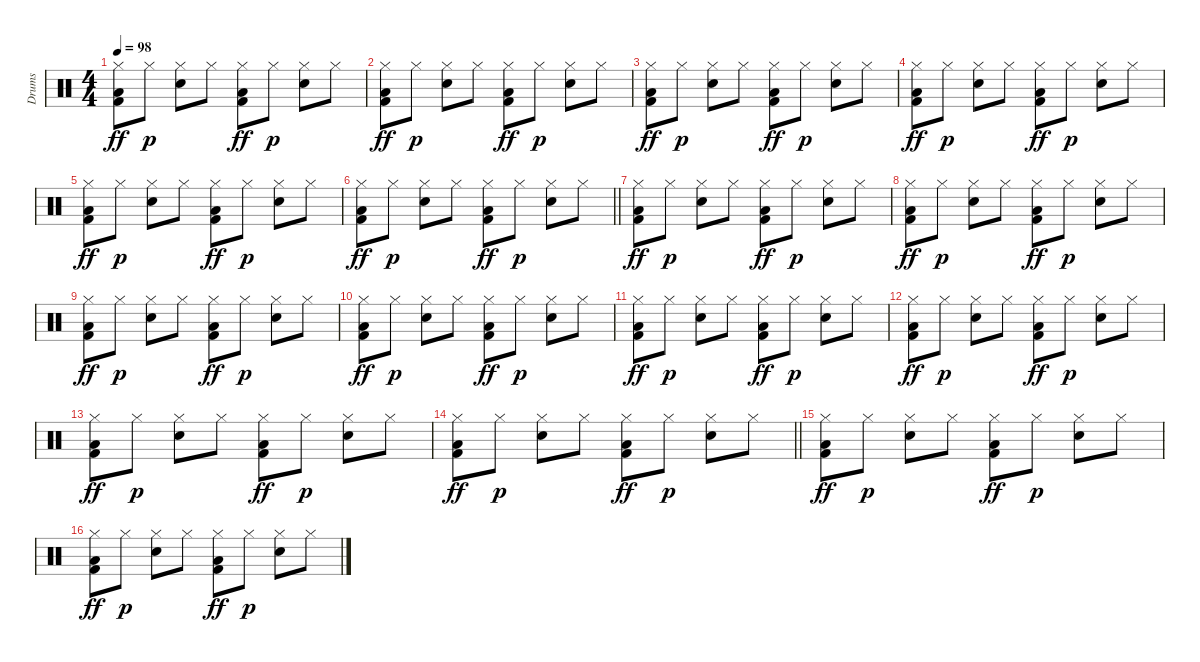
\track ("Drums" "Drums") {instrument percussion}
\staff {score}
\articulation defaults
\ts (4 4)
\tempo 98
\clef neutral
\ks c
("Hi-Hat (closed)" "Low Floor Tom (hit)" "Kick (hit) 2").8{dy ff} "Hi-Hat (closed)".8{dy p} ("Hi-Hat (closed)" "Snare (hit) 2").8 "Hi-Hat (closed)".8 ("Hi-Hat (closed)" "Low Floor Tom (hit)" "Kick (hit) 2").8{dy ff} "Hi-Hat (closed)".8{dy p} ("Hi-Hat (closed)" "Snare (hit) 2").8 "Hi-Hat (closed)".8 |
("Hi-Hat (closed)" "Low Floor Tom (hit)" "Kick (hit) 2").8{dy ff} "Hi-Hat (closed)".8{dy p} ("Hi-Hat (closed)" "Snare (hit) 2").8 "Hi-Hat (closed)".8 ("Hi-Hat (closed)" "Low Floor Tom (hit)" "Kick (hit) 2").8{dy ff} "Hi-Hat (closed)".8{dy p} ("Hi-Hat (closed)" "Snare (hit) 2").8 "Hi-Hat (closed)".8 |
("Hi-Hat (closed)" "Low Floor Tom (hit)" "Kick (hit) 2").8{dy ff} "Hi-Hat (closed)".8{dy p} ("Hi-Hat (closed)" "Snare (hit) 2").8 "Hi-Hat (closed)".8 ("Hi-Hat (closed)" "Low Floor Tom (hit)" "Kick (hit) 2").8{dy ff} "Hi-Hat (closed)".8{dy p} ("Hi-Hat (closed)" "Snare (hit) 2").8 "Hi-Hat (closed)".8 |
("Hi-Hat (closed)" "Low Floor Tom (hit)" "Kick (hit) 2").8{dy ff} "Hi-Hat (closed)".8{dy p} ("Hi-Hat (closed)" "Snare (hit) 2").8 "Hi-Hat (closed)".8 ("Hi-Hat (closed)" "Low Floor Tom (hit)" "Kick (hit) 2").8{dy ff} "Hi-Hat (closed)".8{dy p} ("Hi-Hat (closed)" "Snare (hit) 2").8 "Hi-Hat (closed)".8 |
("Hi-Hat (closed)" "Low Floor Tom (hit)" "Kick (hit) 2").8{dy ff} "Hi-Hat (closed)".8{dy p} ("Hi-Hat (closed)" "Snare (hit) 2").8 "Hi-Hat (closed)".8 ("Hi-Hat (closed)" "Low Floor Tom (hit)" "Kick (hit) 2").8{dy ff} "Hi-Hat (closed)".8{dy p} ("Hi-Hat (closed)" "Snare (hit) 2").8 "Hi-Hat (closed)".8 |
\barLineRight lightlight
("Hi-Hat (closed)" "Low Floor Tom (hit)" "Kick (hit) 2").8{dy ff} "Hi-Hat (closed)".8{dy p} ("Hi-Hat (closed)" "Snare (hit) 2").8 "Hi-Hat (closed)".8 ("Hi-Hat (closed)" "Low Floor Tom (hit)" "Kick (hit) 2").8{dy ff} "Hi-Hat (closed)".8{dy p} ("Hi-Hat (closed)" "Snare (hit) 2").8 "Hi-Hat (closed)".8 |
\section ("" "")
("Hi-Hat (closed)" "Low Floor Tom (hit)" "Kick (hit) 2").8{dy ff} "Hi-Hat (closed)".8{dy p} ("Hi-Hat (closed)" "Snare (hit) 2").8 "Hi-Hat (closed)".8 ("Hi-Hat (closed)" "Low Floor Tom (hit)" "Kick (hit) 2").8{dy ff} "Hi-Hat (closed)".8{dy p} ("Hi-Hat (closed)" "Snare (hit) 2").8 "Hi-Hat (closed)".8 |
("Hi-Hat (closed)" "Low Floor Tom (hit)" "Kick (hit) 2").8{dy ff} "Hi-Hat (closed)".8{dy p} ("Hi-Hat (closed)" "Snare (hit) 2").8 "Hi-Hat (closed)".8 ("Hi-Hat (closed)" "Low Floor Tom (hit)" "Kick (hit) 2").8{dy ff} "Hi-Hat (closed)".8{dy p} ("Hi-Hat (closed)" "Snare (hit) 2").8 "Hi-Hat (closed)".8 |
("Hi-Hat (closed)" "Low Floor Tom (hit)" "Kick (hit) 2").8{dy ff} "Hi-Hat (closed)".8{dy p} ("Hi-Hat (closed)" "Snare (hit) 2").8 "Hi-Hat (closed)".8 ("Hi-Hat (closed)" "Low Floor Tom (hit)" "Kick (hit) 2").8{dy ff} "Hi-Hat (closed)".8{dy p} ("Hi-Hat (closed)" "Snare (hit) 2").8 "Hi-Hat (closed)".8 |
("Hi-Hat (closed)" "Low Floor Tom (hit)" "Kick (hit) 2").8{dy ff} "Hi-Hat (closed)".8{dy p} ("Hi-Hat (closed)" "Snare (hit) 2").8 "Hi-Hat (closed)".8 ("Hi-Hat (closed)" "Low Floor Tom (hit)" "Kick (hit) 2").8{dy ff} "Hi-Hat (closed)".8{dy p} ("Hi-Hat (closed)" "Snare (hit) 2").8 "Hi-Hat (closed)".8 |
("Hi-Hat (closed)" "Low Floor Tom (hit)" "Kick (hit) 2").8{dy ff} "Hi-Hat (closed)".8{dy p} ("Hi-Hat (closed)" "Snare (hit) 2").8 "Hi-Hat (closed)".8 ("Hi-Hat (closed)" "Low Floor Tom (hit)" "Kick (hit) 2").8{dy ff} "Hi-Hat (closed)".8{dy p} ("Hi-Hat (closed)" "Snare (hit) 2").8 "Hi-Hat (closed)".8 |
("Hi-Hat (closed)" "Low Floor Tom (hit)" "Kick (hit) 2").8{dy ff} "Hi-Hat (closed)".8{dy p} ("Hi-Hat (closed)" "Snare (hit) 2").8 "Hi-Hat (closed)".8 ("Hi-Hat (closed)" "Low Floor Tom (hit)" "Kick (hit) 2").8{dy ff} "Hi-Hat (closed)".8{dy p} ("Hi-Hat (closed)" "Snare (hit) 2").8 "Hi-Hat (closed)".8 |
("Hi-Hat (closed)" "Low Floor Tom (hit)" "Kick (hit) 2").8{dy ff} "Hi-Hat (closed)".8{dy p} ("Hi-Hat (closed)" "Snare (hit) 2").8 "Hi-Hat (closed)".8 ("Hi-Hat (closed)" "Low Floor Tom (hit)" "Kick (hit) 2").8{dy ff} "Hi-Hat (closed)".8{dy p} ("Hi-Hat (closed)" "Snare (hit) 2").8 "Hi-Hat (closed)".8 |
\barLineRight lightlight
("Hi-Hat (closed)" "Low Floor Tom (hit)" "Kick (hit) 2").8{dy ff} "Hi-Hat (closed)".8{dy p} ("Hi-Hat (closed)" "Snare (hit) 2").8 "Hi-Hat (closed)".8 ("Hi-Hat (closed)" "Low Floor Tom (hit)" "Kick (hit) 2").8{dy ff} "Hi-Hat (closed)".8{dy p} ("Hi-Hat (closed)" "Snare (hit) 2").8 "Hi-Hat (closed)".8 |
\section ("" "")
("Hi-Hat (closed)" "Low Floor Tom (hit)" "Kick (hit) 2").8{dy ff} "Hi-Hat (closed)".8{dy p} ("Hi-Hat (closed)" "Snare (hit) 2").8 "Hi-Hat (closed)".8 ("Hi-Hat (closed)" "Low Floor Tom (hit)" "Kick (hit) 2").8{dy ff} "Hi-Hat (closed)".8{dy p} ("Hi-Hat (closed)" "Snare (hit) 2").8 "Hi-Hat (closed)".8 |
("Hi-Hat (closed)" "Low Floor Tom (hit)" "Kick (hit) 2").8{dy ff} "Hi-Hat (closed)".8{dy p} ("Hi-Hat (closed)" "Snare (hit) 2").8 "Hi-Hat (closed)".8 ("Hi-Hat (closed)" "Low Floor Tom (hit)" "Kick (hit) 2").8{dy ff} "Hi-Hat (closed)".8{dy p} ("Hi-Hat (closed)" "Snare (hit) 2").8 "Hi-Hat (closed)".8
